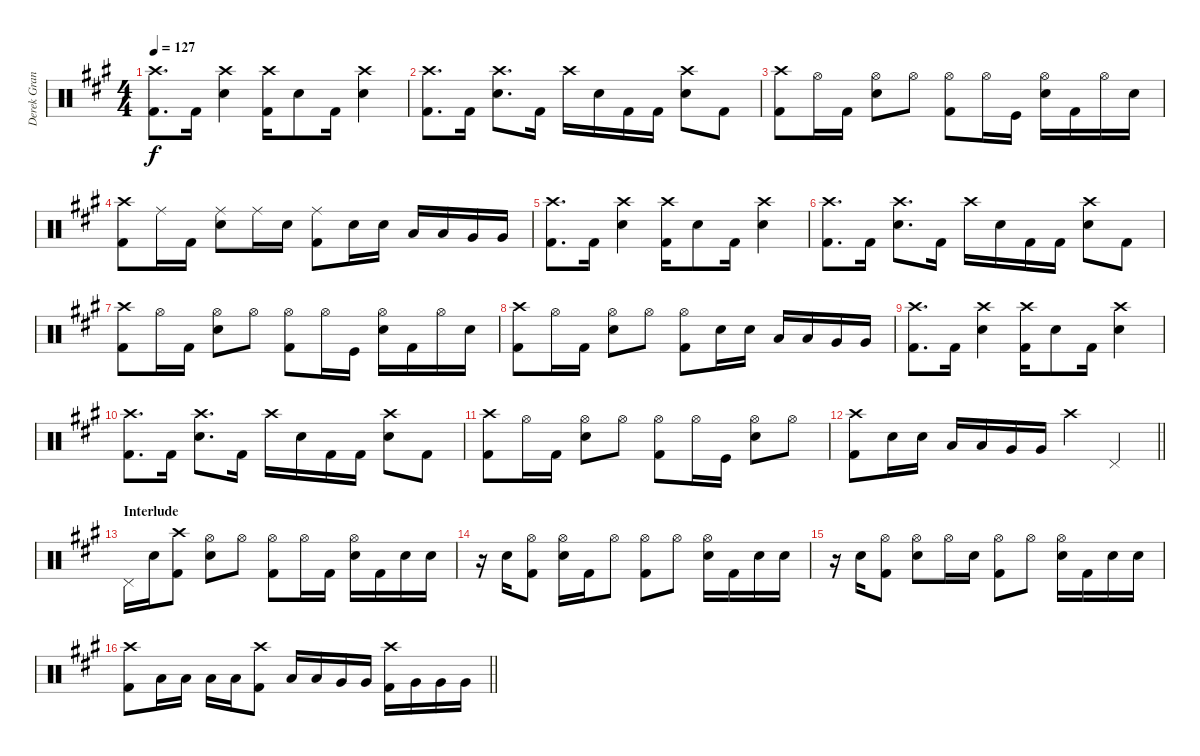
\track ("Derek Grant - Drums" "Derek Gran") {instrument percussion}
\staff {score}
\articulation defaults
\ts (4 4)
\tempo 127
\clef neutral
\ks a
("Crash high (hit)" "Kick (hit) 2").8{d dy f} "Kick (hit) 2".16 ("Snare (hit) 2" "Crash high (hit)").4 ("Crash high (hit)" "Kick (hit) 2").16 "Snare (hit) 2".8 "Kick (hit) 2".16 ("Snare (hit) 2" "Crash high (hit)").4 |
("Crash high (hit)" "Kick (hit) 2").8{d} "Kick (hit) 2".16 ("Snare (hit) 2" "Crash high (hit)").8{d} "Kick (hit) 2".16 "Crash high (hit)".16 "Snare (hit) 2".16 "Kick (hit) 2".16 "Kick (hit) 2".16 ("Snare (hit) 2" "Crash high (hit)").8 "Kick (hit) 2".8 |
("Crash high (hit)" "Kick (hit) 2").8 "Hi-Hat (open)".16 "Kick (hit) 2".16 ("Snare (hit) 2" "Hi-Hat (open)").8 "Hi-Hat (open)".8 ("Hi-Hat (open)" "Kick (hit) 2").8 "Hi-Hat (open)".16 "Kick (hit)".16 ("Hi-Hat (open)" "Snare (hit) 2").16 "Kick (hit) 2".16 "Hi-Hat (open)".16 "Snare (hit) 2".16 |
("Crash high (hit)" "Kick (hit) 2").8 "Ride (middle)".16 "Kick (hit) 2".16 ("Snare (hit) 2" "Ride (middle)").8 "Ride (middle)".16 "Snare (hit) 2".16 ("Ride (middle)" "Kick (hit) 2").8 "Snare (hit) 2".16 "Snare (hit) 2".16 "Low Tom (hit)".16 "Low Tom (hit)".16 "Very Low Tom (hit)".16 "Very Low Tom (hit)".16 |
("Crash high (hit)" "Kick (hit) 2").8{d} "Kick (hit) 2".16 ("Snare (hit) 2" "Crash high (hit)").4 ("Crash high (hit)" "Kick (hit) 2").16 "Snare (hit) 2".8 "Kick (hit) 2".16 ("Snare (hit) 2" "Crash high (hit)").4 |
("Crash high (hit)" "Kick (hit) 2").8{d} "Kick (hit) 2".16 ("Snare (hit) 2" "Crash high (hit)").8{d} "Kick (hit) 2".16 "Crash high (hit)".16 "Snare (hit) 2".16 "Kick (hit) 2".16 "Kick (hit) 2".16 ("Snare (hit) 2" "Crash high (hit)").8 "Kick (hit) 2".8 |
("Crash high (hit)" "Kick (hit) 2").8 "Hi-Hat (open)".16 "Kick (hit) 2".16 ("Snare (hit) 2" "Hi-Hat (open)").8 "Hi-Hat (open)".8 ("Hi-Hat (open)" "Kick (hit) 2").8 "Hi-Hat (open)".16 "Kick (hit)".16 ("Hi-Hat (open)" "Snare (hit) 2").16 "Kick (hit) 2".16 "Hi-Hat (open)".16 "Snare (hit) 2".16 |
("Crash high (hit)" "Kick (hit) 2").8 "Hi-Hat (open)".16 "Kick (hit) 2".16 ("Snare (hit) 2" "Hi-Hat (open)").8 "Hi-Hat (open)".8 ("Hi-Hat (open)" "Kick (hit) 2").8 "Snare (hit) 2".16 "Snare (hit) 2".16 "Low Tom (hit)".16 "Low Tom (hit)".16 "Very Low Tom (hit)".16 "Very Low Tom (hit)".16 |
("Crash high (hit)" "Kick (hit) 2").8{d} "Kick (hit) 2".16 ("Snare (hit) 2" "Crash high (hit)").4 ("Crash high (hit)" "Kick (hit) 2").16 "Snare (hit) 2".8 "Kick (hit) 2".16 ("Snare (hit) 2" "Crash high (hit)").4 |
("Crash high (hit)" "Kick (hit) 2").8{d} "Kick (hit) 2".16 ("Snare (hit) 2" "Crash high (hit)").8{d} "Kick (hit) 2".16 "Crash high (hit)".16 "Snare (hit) 2".16 "Kick (hit) 2".16 "Kick (hit) 2".16 ("Snare (hit) 2" "Crash high (hit)").8 "Kick (hit) 2".8 |
("Crash high (hit)" "Kick (hit) 2").8 "Hi-Hat (open)".16 "Kick (hit) 2".16 ("Snare (hit) 2" "Hi-Hat (open)").8 "Hi-Hat (open)".8 ("Hi-Hat (open)" "Kick (hit) 2").8 "Hi-Hat (open)".16 "Kick (hit)".16 ("Hi-Hat (open)" "Snare (hit) 2").8 "Hi-Hat (open)".8 |
\barLineRight lightlight
("Crash high (hit)" "Kick (hit) 2").8 "Snare (hit) 2".16 "Snare (hit) 2".16 "Low Tom (hit)".16 "Low Tom (hit)".16 "Very Low Tom (hit)".16 "Very Low Tom (hit)".16 "Crash high (hit)".4 "Pedal Hi-Hat (hit)".4 |
\section ("" "Interlude")
"Pedal Hi-Hat (hit)".16 "Snare (hit) 2".16 ("Crash high (hit)" "Kick (hit) 2").8 ("Hi-Hat (open)" "Snare (hit) 2").8 "Hi-Hat (open)".8 ("Hi-Hat (open)" "Kick (hit) 2").8 "Hi-Hat (open)".16 "Kick (hit) 2".16 ("Snare (hit) 2" "Hi-Hat (open)").16 "Kick (hit) 2".16 "Snare (hit) 2".16 "Snare (hit) 2".16 |
r.16 "Snare (hit) 2".16 ("Hi-Hat (open)" "Kick (hit) 2").8 ("Hi-Hat (open)" "Snare (hit) 2").16 "Kick (hit) 2".16 "Hi-Hat (open)".8 ("Hi-Hat (open)" "Kick (hit) 2").8 "Hi-Hat (open)".8 ("Snare (hit) 2" "Hi-Hat (open)").16 "Kick (hit) 2".16 "Snare (hit) 2".16 "Snare (hit) 2".16 |
r.16 "Snare (hit) 2".16 ("Hi-Hat (open)" "Kick (hit) 2").8 ("Hi-Hat (open)" "Snare (hit) 2").8 "Hi-Hat (open)".16 "Snare (hit) 2".16 ("Hi-Hat (open)" "Kick (hit) 2").8 "Hi-Hat (open)".8 ("Snare (hit) 2" "Hi-Hat (open)").16 "Kick (hit) 2".16 "Snare (hit) 2".16 "Snare (hit) 2".16 |
\barLineRight lightlight
("Crash high (hit)" "Kick (hit) 2").8 "Low Tom (hit)".16 "Low Tom (hit)".16 "Low Tom (hit)".16 "Low Tom (hit)".16 ("Crash high (hit)" "Kick (hit) 2").8 "Low Tom (hit)".16 "Low Tom (hit)".16 "Very Low Tom (hit)".16 "Very Low Tom (hit)".16 ("Crash high (hit)" "Kick (hit) 2").16 "Very Low Tom (hit)".16 "Very Low Tom (hit)".16 "Very Low Tom (hit)".16
